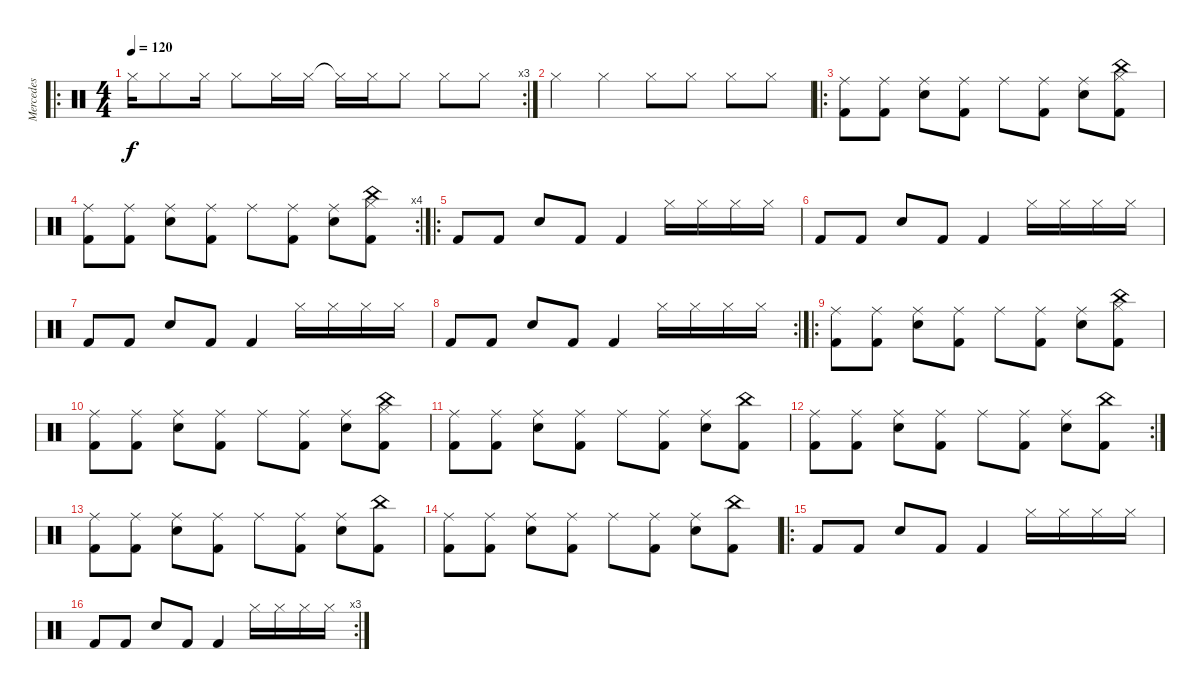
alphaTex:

\track ("Mercedes" "Mercedes") {instrument percussion}
\staff {score}
\articulation defaults
\ro
\rc 3
\ts (4 4)
\tempo 120
\clef neutral
\ks c "Hi-Hat (closed)".16{dy f} "Hi-Hat (closed)".8 "Hi-Hat (closed)".16 "Hi-Hat (closed)".8 "Hi-Hat (closed)".16 "Hi-Hat (closed)".16 "Hi-Hat (closed)"{t}.16 "Hi-Hat (closed)".16 "Hi-Hat (closed)".8 "Hi-Hat (closed)".8 "Hi-Hat (closed)".8
|
"Hi-Hat (closed)".4 "Hi-Hat (closed)".4 "Hi-Hat (closed)".8 "Hi-Hat (closed)".8 "Hi-Hat (closed)".8 "Hi-Hat (closed)".8 |
\ro
("Ride (middle)" "Kick (hit) 2").8 ("Ride (middle)" "Kick (hit) 2").8 ("Ride (middle)" "Snare (hit) 2").8 ("Ride (middle)" "Kick (hit) 2").8 "Ride (middle)".8 ("Ride (middle)" "Kick (hit) 2").8 ("Ride (middle)" "Snare (hit) 2").8 ("China (hit)" "Hi-Hat (closed)" "Kick (hit) 2").8 |
\rc 4
("Ride (middle)" "Kick (hit) 2").8 ("Ride (middle)" "Kick (hit) 2").8 ("Ride (middle)" "Snare (hit) 2").8 ("Ride (middle)" "Kick (hit) 2").8 "Ride (middle)".8 ("Ride (middle)" "Kick (hit) 2").8 ("Ride (middle)" "Snare (hit) 2").8 ("China (hit)" "Hi-Hat (closed)" "Kick (hit) 2").8 |
\ro "Kick (hit) 2".8 "Kick (hit) 2".8 "Snare (hit) 2".8 "Kick (hit) 2".8 "Kick (hit) 2".4 "Hi-Hat (closed)".16 "Hi-Hat (closed)".16 "Hi-Hat (closed)".16 "Hi-Hat (closed)".16
|
"Kick (hit) 2".8 "Kick (hit) 2".8 "Snare (hit) 2".8 "Kick (hit) 2".8 "Kick (hit) 2".4 "Hi-Hat (closed)".16 "Hi-Hat (closed)".16 "Hi-Hat (closed)".16 "Hi-Hat (closed)".16 |
"Kick (hit) 2".8 "Kick (hit) 2".8 "Snare (hit) 2".8 "Kick (hit) 2".8 "Kick (hit) 2".4 "Hi-Hat (closed)".16 "Hi-Hat (closed)".16 "Hi-Hat (closed)".16 "Hi-Hat (closed)".16 |
\rc 2 "Kick (hit) 2".8 "Kick (hit) 2".8 "Snare (hit) 2".8 "Kick (hit) 2".8 "Kick (hit) 2".4 "Hi-Hat (closed)".16 "Hi-Hat (closed)".16 "Hi-Hat (closed)".16 "Hi-Hat (closed)".16
|
\ro
("Ride (middle)" "Kick (hit) 2").8 ("Ride (middle)" "Kick (hit) 2").8 ("Ride (middle)" "Snare (hit) 2").8 ("Ride (middle)" "Kick (hit) 2").8 "Ride (middle)".8 ("Ride (middle)" "Kick (hit) 2").8 ("Ride (middle)" "Snare (hit) 2").8 ("China (hit)" "Hi-Hat (closed)" "Kick (hit) 2").8 |
("Ride (middle)" "Kick (hit) 2").8 ("Ride (middle)" "Kick (hit) 2").8 ("Ride (middle)" "Snare (hit) 2").8 ("Ride (middle)" "Kick (hit) 2").8 "Ride (middle)".8 ("Ride (middle)" "Kick (hit) 2").8 ("Ride (middle)" "Snare (hit) 2").8 ("China (hit)" "Hi-Hat (closed)" "Kick (hit) 2").8 |
("Ride (middle)" "Kick (hit) 2").8 ("Ride (middle)" "Kick (hit) 2").8 ("Ride (middle)" "Snare (hit) 2").8 ("Ride (middle)" "Kick (hit) 2").8 "Ride (middle)".8 ("Ride (middle)" "Kick (hit) 2").8 ("Ride (middle)" "Snare (hit) 2").8 ("China (hit)" "Kick (hit) 2").8 |
\rc 2
("Ride (middle)" "Kick (hit) 2").8 ("Ride (middle)" "Kick (hit) 2").8 ("Ride (middle)" "Snare (hit) 2").8 ("Ride (middle)" "Kick (hit) 2").8 "Ride (middle)".8 ("Ride (middle)" "Kick (hit) 2").8 ("Ride (middle)" "Snare (hit) 2").8 ("China (hit)" "Kick (hit) 2").8 |
("Ride (middle)" "Kick (hit) 2").8 ("Ride (middle)" "Kick (hit) 2").8 ("Ride (middle)" "Snare (hit) 2").8 ("Ride (middle)" "Kick (hit) 2").8 "Ride (middle)".8 ("Ride (middle)" "Kick (hit) 2").8 ("Ride (middle)" "Snare (hit) 2").8 ("China (hit)" "Kick (hit) 2").8 |
("Ride (middle)" "Kick (hit) 2").8 ("Ride (middle)" "Kick (hit) 2").8 ("Ride (middle)" "Snare (hit) 2").8 ("Ride (middle)" "Kick (hit) 2").8 "Ride (middle)".8 ("Ride (middle)" "Kick (hit) 2").8 ("Ride (middle)" "Snare (hit) 2").8 ("China (hit)" "Kick (hit) 2").8 |
\ro "Kick (hit) 2".8 "Kick (hit) 2".8 "Snare (hit) 2".8 "Kick (hit) 2".8 "Kick (hit) 2".4 "Hi-Hat (closed)".16 "Hi-Hat (closed)".16 "Hi-Hat (closed)".16 "Hi-Hat (closed)".16
|
\rc 3 "Kick (hit) 2".8 "Kick (hit) 2".8 "Snare (hit) 2".8 "Kick (hit) 2".8 "Kick (hit) 2".4 "Hi-Hat (closed)".16 "Hi-Hat (closed)".16 "Hi-Hat (closed)".16 "Hi-Hat (closed)".16
